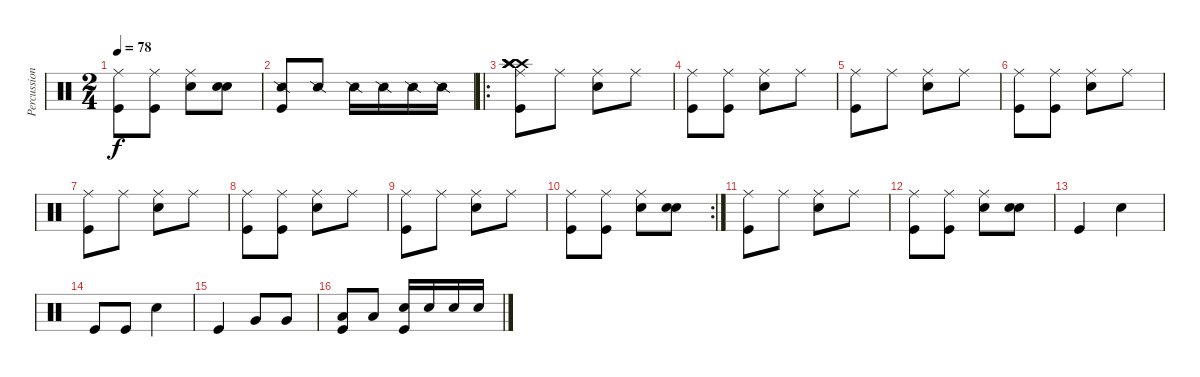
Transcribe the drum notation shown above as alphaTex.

\track ("Percussion" "Percussion") {instrument percussion}
\staff {score}
\articulation defaults
\ts (2 4)
\tempo 78
\clef neutral
\ks c
("Ride (middle)" "Kick (hit)").8{dy f} ("Ride (middle)" "Kick (hit)").8 ("Ride (middle)" "Metronome (bell)").8 ("Snare (hit)" "Metronome (bell)").8 |
("Kick (hit)" "Snare (side stick) 2").8 "Snare (side stick) 2".8 "Snare (side stick) 2".16 "Snare (side stick) 2".16 "Snare (side stick) 2".16 "Snare (side stick) 2".16 |
\ro
("Ride (middle)" "Kick (hit)" "Crash high (hit)" "Crash high (hit)" "Crash high (hit)" "Crash high (hit)").8 "Ride (middle)".8 ("Ride (middle)" "Metronome (bell)").8 "Ride (middle)".8 |
("Ride (middle)" "Kick (hit)").8 ("Ride (middle)" "Kick (hit)").8 ("Ride (middle)" "Metronome (bell)").8 "Ride (middle)".8 |
("Ride (middle)" "Kick (hit)").8 "Ride (middle)".8 ("Ride (middle)" "Metronome (bell)").8 "Ride (middle)".8 |
("Ride (middle)" "Kick (hit)").8 ("Ride (middle)" "Kick (hit)").8 ("Ride (middle)" "Metronome (bell)").8 "Ride (middle)".8 |
("Ride (middle)" "Kick (hit)").8 "Ride (middle)".8 ("Ride (middle)" "Metronome (bell)").8 "Ride (middle)".8 |
("Ride (middle)" "Kick (hit)").8 ("Ride (middle)" "Kick (hit)").8 ("Ride (middle)" "Metronome (bell)").8 "Ride (middle)".8 |
("Ride (middle)" "Kick (hit)").8 "Ride (middle)".8 ("Ride (middle)" "Metronome (bell)").8 "Ride (middle)".8 |
\rc 2
("Ride (middle)" "Kick (hit)").8 ("Ride (middle)" "Kick (hit)").8 ("Ride (middle)" "Metronome (bell)").8 ("Snare (hit)" "Metronome (bell)").8 |
("Ride (middle)" "Kick (hit)").8 "Ride (middle)".8 ("Ride (middle)" "Metronome (bell)").8 "Ride (middle)".8 |
("Ride (middle)" "Kick (hit)").8 ("Ride (middle)" "Kick (hit)").8 ("Ride (middle)" "Metronome (bell)").8 ("Snare (hit)" "Metronome (bell)").8 |
"Kick (hit)".4 "Snare (hit) 2".4 |
"Kick (hit)".8 "Kick (hit)".8 "Snare (hit) 2".4 |
"Kick (hit)".4 "Very Low Tom (hit)".8 "Very Low Tom (hit)".8 |
("Low Floor Tom (hit)" "Kick (hit)").8 "Low Floor Tom (hit)".8 ("Metronome (bell)" "Kick (hit)").16 "Metronome (bell)".16 "Metronome (bell)".16 "Metronome (bell)".16
